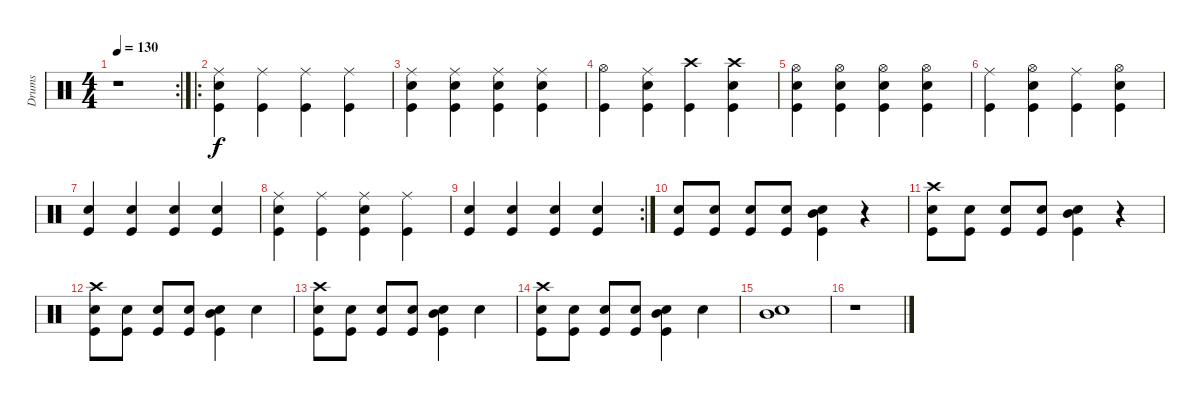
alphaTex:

\track ("Drums" "Drums") {instrument percussion}
\staff {score}
\articulation defaults
\rc 2
\ts (4 4)
\tempo 130
\clef neutral
\ks c
r.1{dy f} |
\ro
("Ride (middle)" "Snare (hit) 2" "Kick (hit)").4 ("Ride (middle)" "Kick (hit)").4 ("Ride (middle)" "Kick (hit)").4 ("Ride (middle)" "Kick (hit)").4 |
("Ride (middle)" "Snare (hit) 2" "Kick (hit)").4 ("Ride (middle)" "Snare (hit) 2" "Kick (hit)").4 ("Ride (middle)" "Snare (hit) 2" "Kick (hit)").4 ("Ride (middle)" "Snare (hit) 2" "Kick (hit)").4 |
("Hi-Hat (open)" "Kick (hit)").4 ("Ride (middle)" "Snare (hit) 2" "Kick (hit)").4 ("Crash high (hit)" "Kick (hit)").4 ("Crash high (hit)" "Snare (hit) 2" "Kick (hit)").4 |
("Hi-Hat (open)" "Snare (hit) 2" "Kick (hit)").4 ("Hi-Hat (open)" "Snare (hit) 2" "Kick (hit)").4 ("Hi-Hat (open)" "Snare (hit) 2" "Kick (hit)").4 ("Hi-Hat (open)" "Snare (hit) 2" "Kick (hit)").4 |
("Ride (middle)" "Kick (hit)").4 ("Hi-Hat (open)" "Snare (hit) 2" "Kick (hit)").4 ("Ride (middle)" "Kick (hit)").4 ("Hi-Hat (open)" "Snare (hit) 2" "Kick (hit)").4 |
("Snare (hit) 2" "Kick (hit)").4 ("Snare (hit) 2" "Kick (hit)").4 ("Snare (hit) 2" "Kick (hit)").4 ("Snare (hit) 2" "Kick (hit)").4 |
("Ride (middle)" "Snare (hit) 2" "Kick (hit)").4 ("Ride (middle)" "Kick (hit)").4 ("Ride (middle)" "Snare (hit) 2" "Kick (hit)").4 ("Ride (middle)" "Kick (hit)").4 |
\rc 2
("Snare (hit) 2" "Kick (hit)").4 ("Snare (hit) 2" "Kick (hit)").4 ("Snare (hit) 2" "Kick (hit)").4 ("Snare (hit) 2" "Kick (hit)").4 |
("Snare (hit) 2" "Kick (hit)").8 ("Snare (hit) 2" "Kick (hit)").8 ("Snare (hit) 2" "Kick (hit)").8 ("Snare (hit) 2" "Kick (hit)").8 ("Snare (hit) 2" "Mid Tom (hit)" "Kick (hit)").4 r.4 |
("Crash high (hit)" "Snare (hit) 2" "Kick (hit)").8 ("Snare (hit) 2" "Kick (hit)").8 ("Snare (hit) 2" "Kick (hit)").8 ("Snare (hit) 2" "Kick (hit)").8 ("Snare (hit) 2" "Mid Tom (hit)" "Kick (hit)").4 r.4 |
("Crash high (hit)" "Snare (hit) 2" "Kick (hit)").8 ("Snare (hit) 2" "Kick (hit)").8 ("Snare (hit) 2" "Kick (hit)").8 ("Snare (hit) 2" "Kick (hit)").8 ("Snare (hit) 2" "Mid Tom (hit)" "Kick (hit)").4 "Snare (hit) 2".4 |
("Crash high (hit)" "Snare (hit) 2" "Kick (hit)").8 ("Snare (hit) 2" "Kick (hit)").8 ("Snare (hit) 2" "Kick (hit)").8 ("Snare (hit) 2" "Kick (hit)").8 ("Snare (hit) 2" "Mid Tom (hit)" "Kick (hit)").4 "Snare (hit) 2".4 |
("Crash high (hit)" "Snare (hit) 2" "Kick (hit)").8 ("Snare (hit) 2" "Kick (hit)").8 ("Snare (hit) 2" "Kick (hit)").8 ("Snare (hit) 2" "Kick (hit)").8 ("Snare (hit) 2" "Mid Tom (hit)" "Kick (hit)").4 "Snare (hit) 2".4 |
("Snare (hit) 2" "Mid Tom (hit)").1 |
r.1
